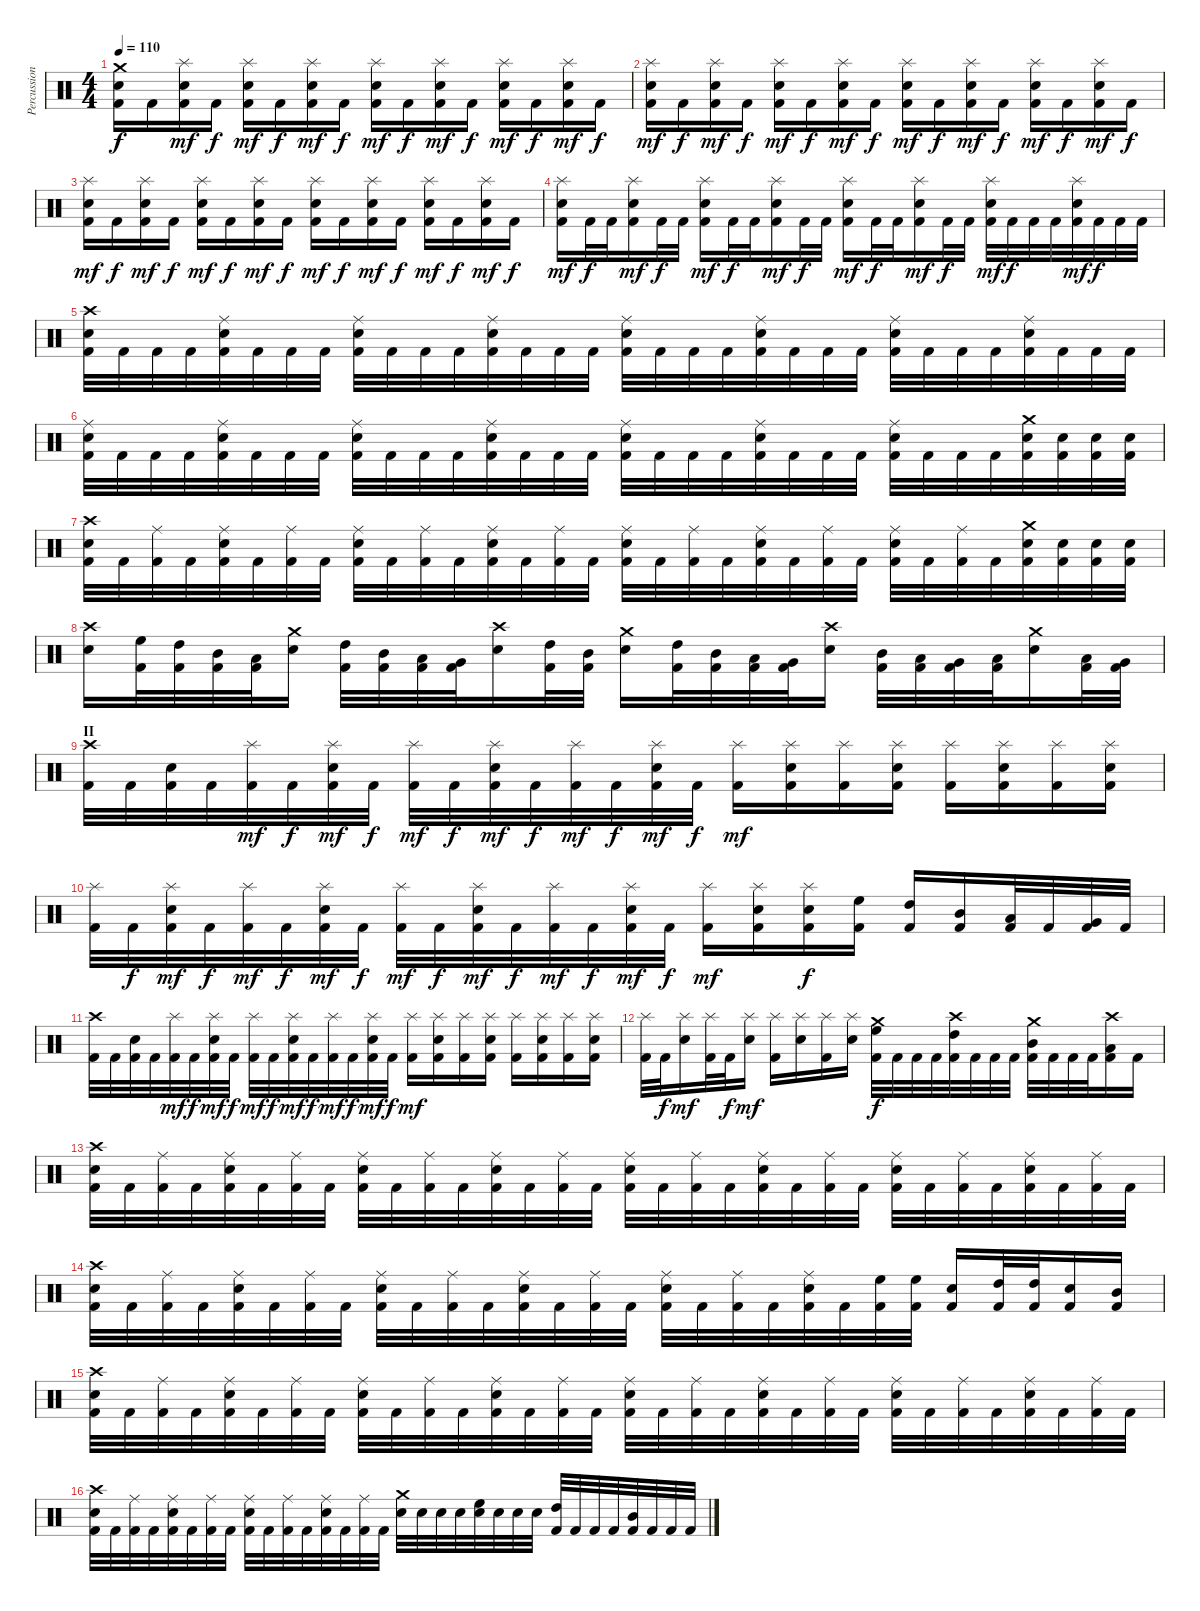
\track ("Percussion" "Percussion") {instrument percussion}
\staff {score}
\articulation defaults
\ts (4 4)
\tempo 110
\clef neutral
\ks c
("Crash medium (hit)" "Snare (hit) 2" "Kick (hit) 2").16{dy f} "Kick (hit) 2".16 ("Splash (hit)" "Snare (hit) 2" "Kick (hit) 2").16{dy mf} "Kick (hit) 2".16{dy f} ("Splash (hit)" "Snare (hit) 2" "Kick (hit) 2").16{dy mf} "Kick (hit) 2".16{dy f} ("Splash (hit)" "Snare (hit) 2" "Kick (hit) 2").16{dy mf} "Kick (hit) 2".16{dy f} ("Splash (hit)" "Snare (hit) 2" "Kick (hit) 2").16{dy mf} "Kick (hit) 2".16{dy f} ("Splash (hit)" "Snare (hit) 2" "Kick (hit) 2").16{dy mf} "Kick (hit) 2".16{dy f} ("Splash (hit)" "Snare (hit) 2" "Kick (hit) 2").16{dy mf} "Kick (hit) 2".16{dy f} ("Splash (hit)" "Snare (hit) 2" "Kick (hit) 2").16{dy mf} "Kick (hit) 2".16{dy f} |
("Splash (hit)" "Snare (hit) 2" "Kick (hit) 2").16{dy mf} "Kick (hit) 2".16{dy f} ("Splash (hit)" "Snare (hit) 2" "Kick (hit) 2").16{dy mf} "Kick (hit) 2".16{dy f} ("Splash (hit)" "Snare (hit) 2" "Kick (hit) 2").16{dy mf} "Kick (hit) 2".16{dy f} ("Splash (hit)" "Snare (hit) 2" "Kick (hit) 2").16{dy mf} "Kick (hit) 2".16{dy f} ("Splash (hit)" "Snare (hit) 2" "Kick (hit) 2").16{dy mf} "Kick (hit) 2".16{dy f} ("Splash (hit)" "Snare (hit) 2" "Kick (hit) 2").16{dy mf} "Kick (hit) 2".16{dy f} ("Splash (hit)" "Snare (hit) 2" "Kick (hit) 2").16{dy mf} "Kick (hit) 2".16{dy f} ("Splash (hit)" "Snare (hit) 2" "Kick (hit) 2").16{dy mf} "Kick (hit) 2".16{dy f} |
("Splash (hit)" "Snare (hit) 2" "Kick (hit) 2").16{dy mf} "Kick (hit) 2".16{dy f} ("Splash (hit)" "Snare (hit) 2" "Kick (hit) 2").16{dy mf} "Kick (hit) 2".16{dy f} ("Splash (hit)" "Snare (hit) 2" "Kick (hit) 2").16{dy mf} "Kick (hit) 2".16{dy f} ("Splash (hit)" "Snare (hit) 2" "Kick (hit) 2").16{dy mf} "Kick (hit) 2".16{dy f} ("Splash (hit)" "Snare (hit) 2" "Kick (hit) 2").16{dy mf} "Kick (hit) 2".16{dy f} ("Splash (hit)" "Snare (hit) 2" "Kick (hit) 2").16{dy mf} "Kick (hit) 2".16{dy f} ("Splash (hit)" "Snare (hit) 2" "Kick (hit) 2").16{dy mf} "Kick (hit) 2".16{dy f} ("Splash (hit)" "Snare (hit) 2" "Kick (hit) 2").16{dy mf} "Kick (hit) 2".16{dy f} |
("Splash (hit)" "Snare (hit) 2" "Kick (hit) 2").16{dy mf} "Kick (hit) 2".32{dy f} "Kick (hit) 2".32 ("Splash (hit)" "Snare (hit) 2" "Kick (hit) 2").16{dy mf} "Kick (hit) 2".32{dy f} "Kick (hit) 2".32 ("Splash (hit)" "Snare (hit) 2" "Kick (hit) 2").16{dy mf} "Kick (hit) 2".32{dy f} "Kick (hit) 2".32 ("Splash (hit)" "Snare (hit) 2" "Kick (hit) 2").16{dy mf} "Kick (hit) 2".32{dy f} "Kick (hit) 2".32 ("Splash (hit)" "Snare (hit) 2" "Kick (hit) 2").16{dy mf} "Kick (hit) 2".32{dy f} "Kick (hit) 2".32 ("Splash (hit)" "Snare (hit) 2" "Kick (hit) 2").16{dy mf} "Kick (hit) 2".32{dy f} "Kick (hit) 2".32 ("Splash (hit)" "Snare (hit) 2" "Kick (hit) 2").32{dy mf} "Kick (hit) 2".32{dy f} "Kick (hit) 2".32 "Kick (hit) 2".32 ("Splash (hit)" "Snare (hit) 2" "Kick (hit) 2").32{dy mf} "Kick (hit) 2".32{dy f} "Kick (hit) 2".32 "Kick (hit) 2".32 |
("Crash high (hit)" "Snare (hit) 2" "Kick (hit) 2").32 "Kick (hit) 2".32 "Kick (hit) 2".32 "Kick (hit) 2".32 ("Ride (middle)" "Snare (hit) 2" "Kick (hit) 2").32 "Kick (hit) 2".32 "Kick (hit) 2".32 "Kick (hit) 2".32 ("Ride (middle)" "Snare (hit) 2" "Kick (hit) 2").32 "Kick (hit) 2".32 "Kick (hit) 2".32 "Kick (hit) 2".32 ("Ride (middle)" "Snare (hit) 2" "Kick (hit) 2").32 "Kick (hit) 2".32 "Kick (hit) 2".32 "Kick (hit) 2".32 ("Ride (middle)" "Snare (hit) 2" "Kick (hit) 2").32 "Kick (hit) 2".32 "Kick (hit) 2".32 "Kick (hit) 2".32 ("Ride (middle)" "Snare (hit) 2" "Kick (hit) 2").32 "Kick (hit) 2".32 "Kick (hit) 2".32 "Kick (hit) 2".32 ("Ride (middle)" "Snare (hit) 2" "Kick (hit) 2").32 "Kick (hit) 2".32 "Kick (hit) 2".32 "Kick (hit) 2".32 ("Ride (middle)" "Snare (hit) 2" "Kick (hit) 2").32 "Kick (hit) 2".32 "Kick (hit) 2".32 "Kick (hit) 2".32 |
("Ride (middle)" "Snare (hit) 2" "Kick (hit) 2").32 "Kick (hit) 2".32 "Kick (hit) 2".32 "Kick (hit) 2".32 ("Ride (middle)" "Snare (hit) 2" "Kick (hit) 2").32 "Kick (hit) 2".32 "Kick (hit) 2".32 "Kick (hit) 2".32 ("Ride (middle)" "Snare (hit) 2" "Kick (hit) 2").32 "Kick (hit) 2".32 "Kick (hit) 2".32 "Kick (hit) 2".32 ("Ride (middle)" "Snare (hit) 2" "Kick (hit) 2").32 "Kick (hit) 2".32 "Kick (hit) 2".32 "Kick (hit) 2".32 ("Ride (middle)" "Snare (hit) 2" "Kick (hit) 2").32 "Kick (hit) 2".32 "Kick (hit) 2".32 "Kick (hit) 2".32 ("Ride (middle)" "Snare (hit) 2" "Kick (hit) 2").32 "Kick (hit) 2".32 "Kick (hit) 2".32 "Kick (hit) 2".32 ("Ride (middle)" "Snare (hit) 2" "Kick (hit) 2").32 "Kick (hit) 2".32 "Kick (hit) 2".32 "Kick (hit) 2".32 ("Crash medium (hit)" "Snare (hit) 2" "Kick (hit) 2").32 ("Snare (hit) 2" "Kick (hit) 2").32 ("Snare (hit) 2" "Kick (hit) 2").32 ("Snare (hit) 2" "Kick (hit) 2").32 |
("Crash high (hit)" "Snare (hit) 2" "Kick (hit) 2").32 "Kick (hit) 2".32 ("Ride (middle)" "Kick (hit) 2").32 "Kick (hit) 2".32 ("Ride (middle)" "Snare (hit) 2" "Kick (hit) 2").32 "Kick (hit) 2".32 ("Ride (middle)" "Kick (hit) 2").32 "Kick (hit) 2".32 ("Ride (middle)" "Snare (hit) 2" "Kick (hit) 2").32 "Kick (hit) 2".32 ("Ride (middle)" "Kick (hit) 2").32 "Kick (hit) 2".32 ("Ride (middle)" "Snare (hit) 2" "Kick (hit) 2").32 "Kick (hit) 2".32 ("Ride (middle)" "Kick (hit) 2").32 "Kick (hit) 2".32 ("Ride (middle)" "Snare (hit) 2" "Kick (hit) 2").32 "Kick (hit) 2".32 ("Ride (middle)" "Kick (hit) 2").32 "Kick (hit) 2".32 ("Ride (middle)" "Snare (hit) 2" "Kick (hit) 2").32 "Kick (hit) 2".32 ("Ride (middle)" "Kick (hit) 2").32 "Kick (hit) 2".32 ("Ride (middle)" "Snare (hit) 2" "Kick (hit) 2").32 "Kick (hit) 2".32 ("Ride (middle)" "Kick (hit) 2").32 "Kick (hit) 2".32 ("Crash medium (hit)" "Snare (hit) 2" "Kick (hit) 2").32 ("Snare (hit) 2" "Kick (hit) 2").32 ("Snare (hit) 2" "Kick (hit) 2").32 ("Snare (hit) 2" "Kick (hit) 2").32 |
("Crash high (hit)" "Snare (hit) 2").16 ("High Floor Tom (hit)" "Kick (hit) 2").32 ("High Tom (hit)" "Kick (hit) 2").32 ("Mid Tom (hit)" "Kick (hit) 2").32 ("Low Tom (hit)" "Kick (hit) 2").32 ("Crash medium (hit)" "Snare (hit) 2").16 ("High Tom (hit)" "Kick (hit) 2").32 ("Mid Tom (hit)" "Kick (hit) 2").32 ("Low Tom (hit)" "Kick (hit) 2").32 ("Very Low Tom (hit)" "Kick (hit) 2").32 ("Crash high (hit)" "Snare (hit) 2").16 ("High Tom (hit)" "Kick (hit) 2").32 ("Mid Tom (hit)" "Kick (hit) 2").32 ("Crash medium (hit)" "Snare (hit) 2").16 ("High Tom (hit)" "Kick (hit) 2").32 ("Mid Tom (hit)" "Kick (hit) 2").32 ("Low Tom (hit)" "Kick (hit) 2").32 ("Very Low Tom (hit)" "Kick (hit) 2").32 ("Crash high (hit)" "Snare (hit) 2").16 ("Mid Tom (hit)" "Kick (hit) 2").32 ("Low Tom (hit)" "Kick (hit) 2").32 ("Very Low Tom (hit)" "Kick (hit) 2").32 ("Low Floor Tom (hit)" "Kick (hit) 2").32 ("Crash medium (hit)" "Snare (hit) 2").16 ("Low Tom (hit)" "Kick (hit) 2").32 ("Very Low Tom (hit)" "Kick (hit) 2").32 |
\section ("" "II")
("Crash high (hit)" "Kick (hit) 2").32 "Kick (hit) 2".32 ("Snare (hit) 2" "Kick (hit) 2").32 "Kick (hit) 2".32 ("Splash (hit)" "Kick (hit) 2").32{dy mf} "Kick (hit) 2".32{dy f} ("Splash (hit)" "Snare (hit) 2" "Kick (hit) 2").32{dy mf} "Kick (hit) 2".32{dy f} ("Splash (hit)" "Kick (hit) 2").32{dy mf} "Kick (hit) 2".32{dy f} ("Splash (hit)" "Snare (hit) 2" "Kick (hit) 2").32{dy mf} "Kick (hit) 2".32{dy f} ("Splash (hit)" "Kick (hit) 2").32{dy mf} "Kick (hit) 2".32{dy f} ("Splash (hit)" "Snare (hit) 2" "Kick (hit) 2").32{dy mf} "Kick (hit) 2".32{dy f} ("Splash (hit)" "Kick (hit) 2").16{dy mf} ("Splash (hit)" "Snare (hit) 2" "Kick (hit) 2").16 ("Splash (hit)" "Kick (hit) 2").16 ("Splash (hit)" "Snare (hit) 2" "Kick (hit) 2").16 ("Splash (hit)" "Kick (hit) 2").16 ("Splash (hit)" "Snare (hit) 2" "Kick (hit) 2").16 ("Splash (hit)" "Kick (hit) 2").16 ("Splash (hit)" "Snare (hit) 2" "Kick (hit) 2").16 |
("Splash (hit)" "Kick (hit) 2").32 "Kick (hit) 2".32{dy f} ("Splash (hit)" "Snare (hit) 2" "Kick (hit) 2").32{dy mf} "Kick (hit) 2".32{dy f} ("Splash (hit)" "Kick (hit) 2").32{dy mf} "Kick (hit) 2".32{dy f} ("Splash (hit)" "Snare (hit) 2" "Kick (hit) 2").32{dy mf} "Kick (hit) 2".32{dy f} ("Splash (hit)" "Kick (hit) 2").32{dy mf} "Kick (hit) 2".32{dy f} ("Splash (hit)" "Snare (hit) 2" "Kick (hit) 2").32{dy mf} "Kick (hit) 2".32{dy f} ("Splash (hit)" "Kick (hit) 2").32{dy mf} "Kick (hit) 2".32{dy f} ("Splash (hit)" "Snare (hit) 2" "Kick (hit) 2").32{dy mf} "Kick (hit) 2".32{dy f} ("Splash (hit)" "Kick (hit) 2").16{dy mf} ("Splash (hit)" "Snare (hit) 2" "Kick (hit) 2").16 ("Splash (hit)" "Snare (hit) 2" "Kick (hit) 2").16{dy f} ("High Floor Tom (hit)" "Kick (hit) 2").16 ("High Tom (hit)" "Kick (hit) 2").16 ("Mid Tom (hit)" "Kick (hit) 2").16 ("Low Tom (hit)" "Kick (hit) 2").32 "Kick (hit) 2".32 ("Very Low Tom (hit)" "Kick (hit) 2").32 "Kick (hit) 2".32 |
("Crash high (hit)" "Kick (hit) 2").32 "Kick (hit) 2".32 ("Snare (hit) 2" "Kick (hit) 2").32 "Kick (hit) 2".32 ("Splash (hit)" "Kick (hit) 2").32{dy mf} "Kick (hit) 2".32{dy f} ("Splash (hit)" "Snare (hit) 2" "Kick (hit) 2").32{dy mf} "Kick (hit) 2".32{dy f} ("Splash (hit)" "Kick (hit) 2").32{dy mf} "Kick (hit) 2".32{dy f} ("Splash (hit)" "Snare (hit) 2" "Kick (hit) 2").32{dy mf} "Kick (hit) 2".32{dy f} ("Splash (hit)" "Kick (hit) 2").32{dy mf} "Kick (hit) 2".32{dy f} ("Splash (hit)" "Snare (hit) 2" "Kick (hit) 2").32{dy mf} "Kick (hit) 2".32{dy f} ("Splash (hit)" "Kick (hit) 2").16{dy mf} ("Splash (hit)" "Snare (hit) 2" "Kick (hit) 2").16 ("Splash (hit)" "Kick (hit) 2").16 ("Splash (hit)" "Snare (hit) 2" "Kick (hit) 2").16 ("Splash (hit)" "Kick (hit) 2").16 ("Splash (hit)" "Snare (hit) 2" "Kick (hit) 2").16 ("Splash (hit)" "Kick (hit) 2").16 ("Splash (hit)" "Snare (hit) 2" "Kick (hit) 2").16 |
("Splash (hit)" "Kick (hit) 2").32 "Kick (hit) 2".32{dy f} ("Splash (hit)" "Snare (hit) 2").16{dy mf} ("Splash (hit)" "Kick (hit) 2").32 "Kick (hit) 2".32{dy f} ("Splash (hit)" "Snare (hit) 2").16{dy mf} ("Splash (hit)" "Kick (hit) 2").16 ("Splash (hit)" "Snare (hit) 2").16 ("Splash (hit)" "Kick (hit) 2").16 ("Splash (hit)" "Snare (hit) 2").16 ("Crash medium (hit)" "High Floor Tom (hit)" "Kick (hit) 2").32{dy f} "Kick (hit) 2".32 "Kick (hit) 2".32 "Kick (hit) 2".32 ("Crash high (hit)" "High Tom (hit)" "Kick (hit) 2").32 "Kick (hit) 2".32 "Kick (hit) 2".32 "Kick (hit) 2".32 ("Crash medium (hit)" "Mid Tom (hit)" "Kick (hit) 2").32 "Kick (hit) 2".32 "Kick (hit) 2".32 "Kick (hit) 2".32 ("Crash high (hit)" "Low Tom (hit)" "Kick (hit) 2").16 "Kick (hit) 2".16 |
("Crash high (hit)" "Snare (hit) 2" "Kick (hit) 2").32 "Kick (hit) 2".32 ("Ride (middle)" "Kick (hit) 2").32 "Kick (hit) 2".32 ("Ride (middle)" "Snare (hit) 2" "Kick (hit) 2").32 "Kick (hit) 2".32 ("Ride (middle)" "Kick (hit) 2").32 "Kick (hit) 2".32 ("Ride (middle)" "Snare (hit) 2" "Kick (hit) 2").32 "Kick (hit) 2".32 ("Ride (middle)" "Kick (hit) 2").32 "Kick (hit) 2".32 ("Ride (middle)" "Snare (hit) 2" "Kick (hit) 2").32 "Kick (hit) 2".32 ("Ride (middle)" "Kick (hit) 2").32 "Kick (hit) 2".32 ("Ride (middle)" "Snare (hit) 2" "Kick (hit) 2").32 "Kick (hit) 2".32 ("Ride (middle)" "Kick (hit) 2").32 "Kick (hit) 2".32 ("Ride (middle)" "Snare (hit) 2" "Kick (hit) 2").32 "Kick (hit) 2".32 ("Ride (middle)" "Kick (hit) 2").32 "Kick (hit) 2".32 ("Ride (middle)" "Snare (hit) 2" "Kick (hit) 2").32 "Kick (hit) 2".32 ("Ride (middle)" "Kick (hit) 2").32 "Kick (hit) 2".32 ("Ride (middle)" "Snare (hit) 2" "Kick (hit) 2").32 "Kick (hit) 2".32 ("Ride (middle)" "Kick (hit) 2").32 "Kick (hit) 2".32 |
("Crash high (hit)" "Snare (hit) 2" "Kick (hit) 2").32 "Kick (hit) 2".32 ("Ride (middle)" "Kick (hit) 2").32 "Kick (hit) 2".32 ("Ride (middle)" "Snare (hit) 2" "Kick (hit) 2").32 "Kick (hit) 2".32 ("Ride (middle)" "Kick (hit) 2").32 "Kick (hit) 2".32 ("Ride (middle)" "Snare (hit) 2" "Kick (hit) 2").32 "Kick (hit) 2".32 ("Ride (middle)" "Kick (hit) 2").32 "Kick (hit) 2".32 ("Ride (middle)" "Snare (hit) 2" "Kick (hit) 2").32 "Kick (hit) 2".32 ("Ride (middle)" "Kick (hit) 2").32 "Kick (hit) 2".32 ("Ride (middle)" "Snare (hit) 2" "Kick (hit) 2").32 "Kick (hit) 2".32 ("Ride (middle)" "Kick (hit) 2").32 "Kick (hit) 2".32 ("Ride (middle)" "Snare (hit) 2" "Kick (hit) 2").32 "Kick (hit) 2".32 ("High Floor Tom (hit)" "Kick (hit) 2").32 ("High Floor Tom (hit)" "Kick (hit) 2").32 ("Snare (hit) 2" "Kick (hit) 2").16 ("High Tom (hit)" "Kick (hit) 2").32 ("High Tom (hit)" "Kick (hit) 2").32 ("Snare (hit) 2" "Kick (hit) 2").16 ("Mid Tom (hit)" "Kick (hit) 2").16 |
("Crash high (hit)" "Snare (hit) 2" "Kick (hit) 2").32 "Kick (hit) 2".32 ("Ride (middle)" "Kick (hit) 2").32 "Kick (hit) 2".32 ("Ride (middle)" "Snare (hit) 2" "Kick (hit) 2").32 "Kick (hit) 2".32 ("Ride (middle)" "Kick (hit) 2").32 "Kick (hit) 2".32 ("Ride (middle)" "Snare (hit) 2" "Kick (hit) 2").32 "Kick (hit) 2".32 ("Ride (middle)" "Kick (hit) 2").32 "Kick (hit) 2".32 ("Ride (middle)" "Snare (hit) 2" "Kick (hit) 2").32 "Kick (hit) 2".32 ("Ride (middle)" "Kick (hit) 2").32 "Kick (hit) 2".32 ("Ride (middle)" "Snare (hit) 2" "Kick (hit) 2").32 "Kick (hit) 2".32 ("Ride (middle)" "Kick (hit) 2").32 "Kick (hit) 2".32 ("Ride (middle)" "Snare (hit) 2" "Kick (hit) 2").32 "Kick (hit) 2".32 ("Ride (middle)" "Kick (hit) 2").32 "Kick (hit) 2".32 ("Ride (middle)" "Snare (hit) 2" "Kick (hit) 2").32 "Kick (hit) 2".32 ("Ride (middle)" "Kick (hit) 2").32 "Kick (hit) 2".32 ("Ride (middle)" "Snare (hit) 2" "Kick (hit) 2").32 "Kick (hit) 2".32 ("Ride (middle)" "Kick (hit) 2").32 "Kick (hit) 2".32 |
("Crash high (hit)" "Snare (hit) 2" "Kick (hit) 2").32 "Kick (hit) 2".32 ("Ride (middle)" "Kick (hit) 2").32 "Kick (hit) 2".32 ("Ride (middle)" "Snare (hit) 2" "Kick (hit) 2").32 "Kick (hit) 2".32 ("Ride (middle)" "Kick (hit) 2").32 "Kick (hit) 2".32 ("Ride (middle)" "Snare (hit) 2" "Kick (hit) 2").32 "Kick (hit) 2".32 ("Ride (middle)" "Kick (hit) 2").32 "Kick (hit) 2".32 ("Ride (middle)" "Snare (hit) 2" "Kick (hit) 2").32 "Kick (hit) 2".32 ("Ride (middle)" "Kick (hit) 2").32 "Kick (hit) 2".32 ("Crash medium (hit)" "Snare (hit) 2").32 "Snare (hit) 2".32 "Snare (hit) 2".32 "Snare (hit) 2".32 ("High Floor Tom (hit)" "Snare (hit) 2").32 "Snare (hit) 2".32 "Snare (hit) 2".32 "Snare (hit) 2".32 ("High Tom (hit)" "Kick (hit) 2").32 "Kick (hit) 2".32 "Kick (hit) 2".32 "Kick (hit) 2".32 ("Mid Tom (hit)" "Kick (hit) 2").32 "Kick (hit) 2".32 "Kick (hit) 2".32 "Kick (hit) 2".32
